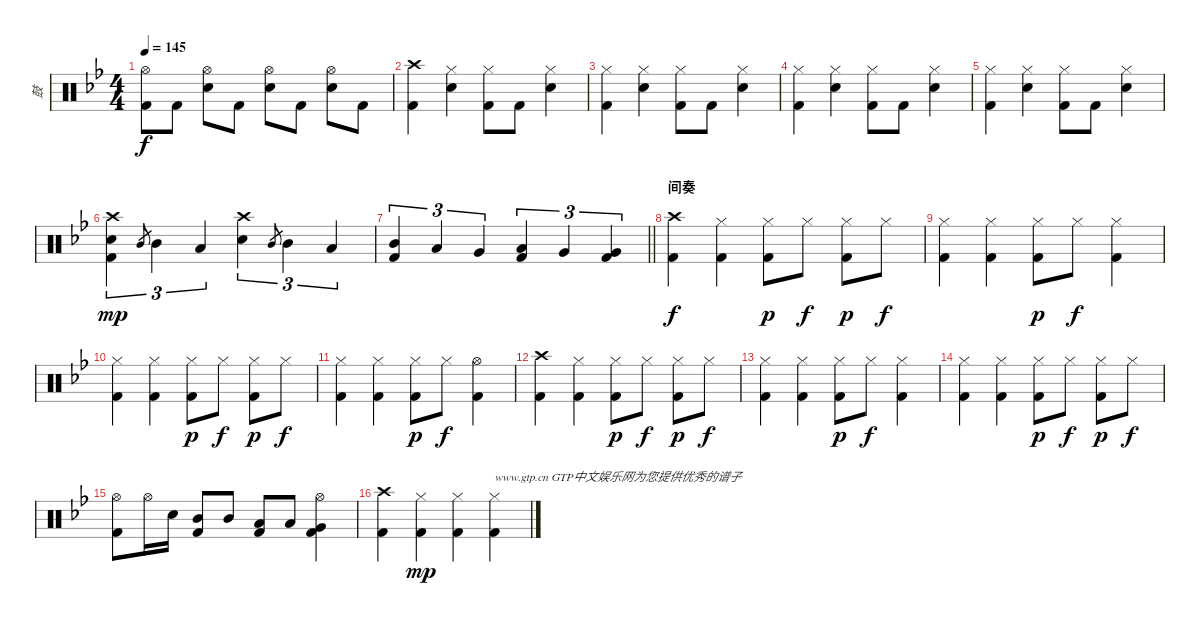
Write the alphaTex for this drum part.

\track ("鼓" "鼓") {instrument percussion}
\staff {score}
\articulation defaults
\ts (4 4)
\tempo 145
\clef neutral
\ks bb
("Hi-Hat (open)" "Kick (hit) 2").8{dy f} "Kick (hit) 2".8 ("Hi-Hat (open)" "Snare (hit) 2").8 "Kick (hit) 2".8 ("Hi-Hat (open)" "Snare (hit) 2").8 "Kick (hit) 2".8 ("Hi-Hat (open)" "Snare (hit) 2").8 "Kick (hit) 2".8 |
("Crash high (hit)" "Kick (hit) 2").4 ("Hi-Hat (closed)" "Snare (hit) 2").4 ("Hi-Hat (closed)" "Kick (hit) 2").8 "Kick (hit) 2".8 ("Hi-Hat (closed)" "Snare (hit) 2").4 |
("Hi-Hat (closed)" "Kick (hit) 2").4 ("Hi-Hat (closed)" "Snare (hit) 2").4 ("Hi-Hat (closed)" "Kick (hit) 2").8 "Kick (hit) 2".8 ("Hi-Hat (closed)" "Snare (hit) 2").4 |
("Hi-Hat (closed)" "Kick (hit) 2").4 ("Hi-Hat (closed)" "Snare (hit) 2").4 ("Hi-Hat (closed)" "Kick (hit) 2").8 "Kick (hit) 2".8 ("Hi-Hat (closed)" "Snare (hit) 2").4 |
("Hi-Hat (closed)" "Kick (hit) 2").4 ("Hi-Hat (closed)" "Snare (hit) 2").4 ("Hi-Hat (closed)" "Kick (hit) 2").8 "Kick (hit) 2".8 ("Hi-Hat (closed)" "Snare (hit) 2").4 |
("Crash high (hit)" "Snare (hit) 2" "Kick (hit) 2").4{tu (3 2) dy mp} "Mid Tom (hit)".8{gr} "Mid Tom (hit)".4{tu (3 2)} "Low Tom (hit)".4{tu (3 2)} ("Crash high (hit)" "Snare (hit) 2").4{tu (3 2)} "Mid Tom (hit)".8{gr} "Mid Tom (hit)".4{tu (3 2)} "Low Tom (hit)".4{tu (3 2)} |
\barLineRight lightlight
("Mid Tom (hit)" "Kick (hit) 2").4{tu (3 2)} "Low Tom (hit)".4{tu (3 2)} "Very Low Tom (hit)".4{tu (3 2)} ("Low Tom (hit)" "Kick (hit) 2").4{tu (3 2)} "Very Low Tom (hit)".4{tu (3 2)} ("Very Low Tom (hit)" "Kick (hit) 2").4{tu (3 2)} |
\section ("" "间奏")
("Crash high (hit)" "Kick (hit) 2").4{dy f} ("Hi-Hat (closed)" "Kick (hit) 2").4 ("Hi-Hat (closed)" "Kick (hit) 2").8{dy p} "Hi-Hat (closed)".8{dy f} ("Hi-Hat (closed)" "Kick (hit) 2").8{dy p} "Hi-Hat (closed)".8{dy f} |
("Hi-Hat (closed)" "Kick (hit) 2").4 ("Hi-Hat (closed)" "Kick (hit) 2").4 ("Hi-Hat (closed)" "Kick (hit) 2").8{dy p} "Hi-Hat (closed)".8{dy f} ("Hi-Hat (closed)" "Kick (hit) 2").4 |
("Hi-Hat (closed)" "Kick (hit) 2").4 ("Hi-Hat (closed)" "Kick (hit) 2").4 ("Hi-Hat (closed)" "Kick (hit) 2").8{dy p} "Hi-Hat (closed)".8{dy f} ("Hi-Hat (closed)" "Kick (hit) 2").8{dy p} "Hi-Hat (closed)".8{dy f} |
("Hi-Hat (closed)" "Kick (hit) 2").4 ("Hi-Hat (closed)" "Kick (hit) 2").4 ("Hi-Hat (closed)" "Kick (hit) 2").8{dy p} "Hi-Hat (closed)".8{dy f} ("Hi-Hat (open)" "Kick (hit) 2").4 |
("Crash high (hit)" "Kick (hit) 2").4 ("Hi-Hat (closed)" "Kick (hit) 2").4 ("Hi-Hat (closed)" "Kick (hit) 2").8{dy p} "Hi-Hat (closed)".8{dy f} ("Hi-Hat (closed)" "Kick (hit) 2").8{dy p} "Hi-Hat (closed)".8{dy f} |
("Hi-Hat (closed)" "Kick (hit) 2").4 ("Hi-Hat (closed)" "Kick (hit) 2").4 ("Hi-Hat (closed)" "Kick (hit) 2").8{dy p} "Hi-Hat (closed)".8{dy f} ("Hi-Hat (closed)" "Kick (hit) 2").4 |
("Hi-Hat (closed)" "Kick (hit) 2").4 ("Hi-Hat (closed)" "Kick (hit) 2").4 ("Hi-Hat (closed)" "Kick (hit) 2").8{dy p} "Hi-Hat (closed)".8{dy f} ("Hi-Hat (closed)" "Kick (hit) 2").8{dy p} "Hi-Hat (closed)".8{dy f} |
("Hi-Hat (open)" "Kick (hit) 2").8 "Hi-Hat (open)".16 "Snare (hit) 2".16 ("Mid Tom (hit)" "Kick (hit) 2").8 "Mid Tom (hit)".8 ("Low Tom (hit)" "Kick (hit) 2").8 "Low Tom (hit)".8 ("Hi-Hat (open)" "Very Low Tom (hit)" "Kick (hit) 2").4 |
("Crash high (hit)" "Kick (hit) 2").4 ("Hi-Hat (closed)" "Kick (hit) 2").4{dy mp} ("Hi-Hat (closed)" "Kick (hit) 2").4 ("Hi-Hat (closed)" "Kick (hit) 2").4{txt "www.gtp.cn GTP中文娱乐网为您提供优秀的谱子"}
